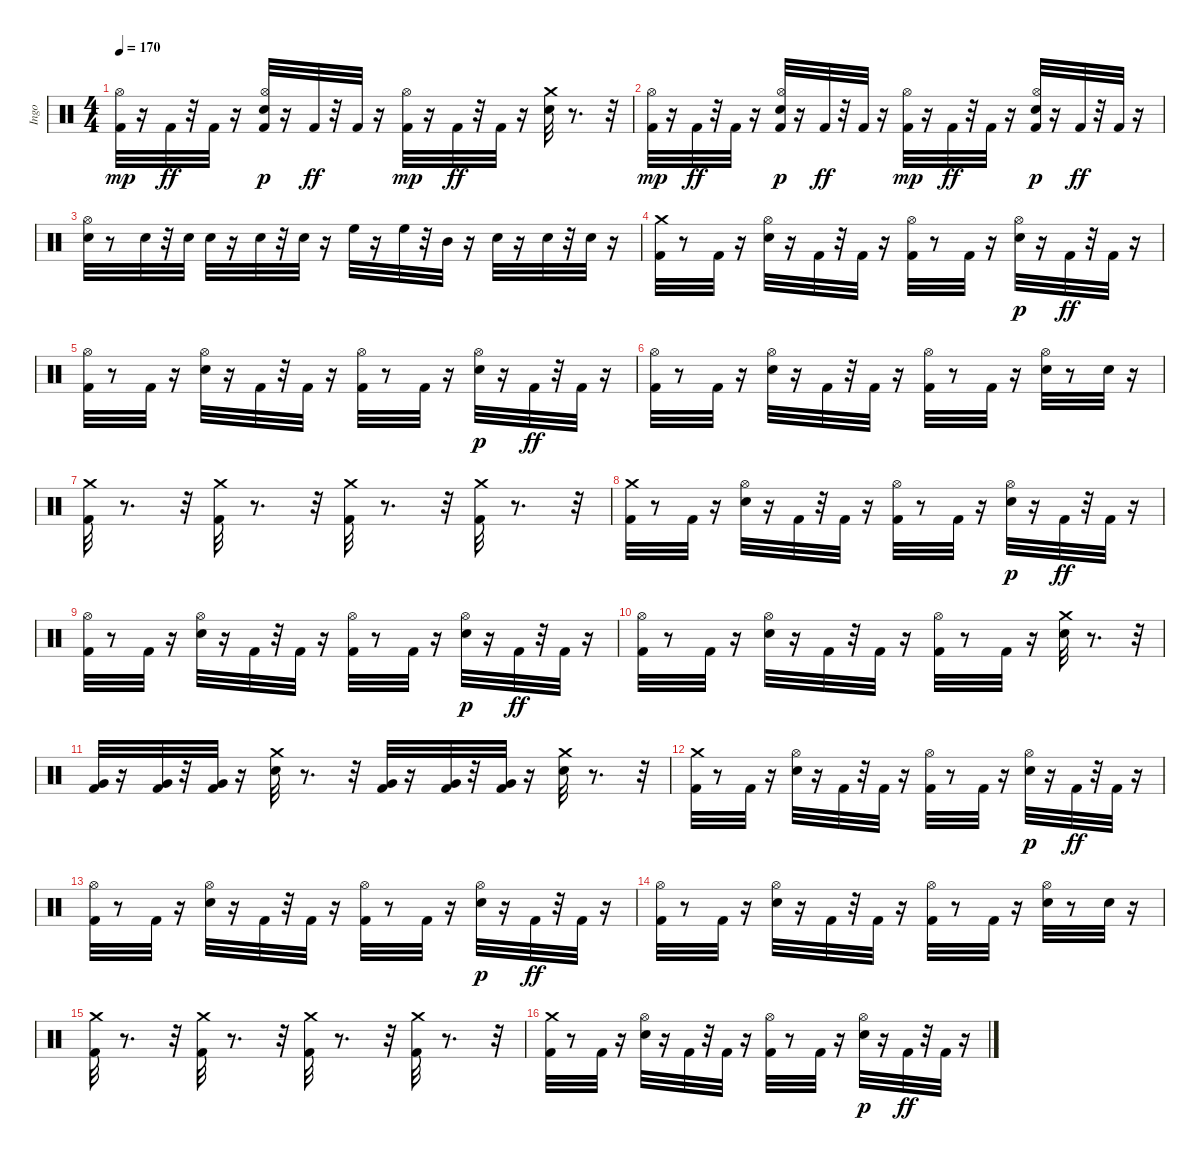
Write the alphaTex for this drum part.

\track ("Ingo" "Ingo") {instrument percussion}
\staff {score}
\articulation defaults
\ts (4 4)
\tempo 170
\clef neutral
\ks c
("Kick (hit) 2" "Hi-Hat (open)").32{dy mp} r.16 "Kick (hit) 2".32{dy ff} r.32 "Kick (hit) 2".32 r.16 ("Snare (hit) 2" "Kick (hit) 2" "Hi-Hat (open)").32{dy p} r.16 "Kick (hit) 2".32{dy ff} r.32 "Kick (hit) 2".32 r.16 ("Kick (hit) 2" "Hi-Hat (open)").32{dy mp} r.16 "Kick (hit) 2".32{dy ff} r.32 "Kick (hit) 2".32 r.16 ("Crash medium (hit)" "Snare (hit) 2").32 r.8{d} r.32 |
("Kick (hit) 2" "Hi-Hat (open)").32{dy mp} r.16 "Kick (hit) 2".32{dy ff} r.32 "Kick (hit) 2".32 r.16 ("Snare (hit) 2" "Kick (hit) 2" "Hi-Hat (open)").32{dy p} r.16 "Kick (hit) 2".32{dy ff} r.32 "Kick (hit) 2".32 r.16 ("Kick (hit) 2" "Hi-Hat (open)").32{dy mp} r.16 "Kick (hit) 2".32{dy ff} r.32 "Kick (hit) 2".32 r.16 ("Snare (hit) 2" "Kick (hit) 2" "Hi-Hat (open)").32{dy p} r.16 "Kick (hit) 2".32{dy ff} r.32 "Kick (hit) 2".32 r.16 |
("Hi-Hat (open)" "Snare (hit) 2").32 r.8 "Snare (hit) 2".32 r.32 "Snare (hit) 2".32 "Snare (hit) 2".32 r.16 "Snare (hit) 2".32 r.32 "Snare (hit) 2".32 r.16 "High Floor Tom (hit)".32 r.16 "High Floor Tom (hit)".32 r.32 "Mid Tom (hit)".32 r.16 "Snare (hit)".32 r.16 "Snare (hit)".32 r.32 "Snare (hit)".32 r.16 |
("Crash medium (hit)" "Kick (hit) 2").32 r.8 "Kick (hit) 2".32 r.16 ("Hi-Hat (open)" "Snare (hit) 2").32 r.16 "Kick (hit) 2".32 r.32 "Kick (hit) 2".32 r.16 ("Hi-Hat (open)" "Kick (hit) 2").32 r.8 "Kick (hit) 2".32 r.16 ("Snare (hit) 2" "Hi-Hat (open)").32{dy p} r.16 "Kick (hit) 2".32{dy ff} r.32 "Kick (hit) 2".32 r.16 |
("Hi-Hat (open)" "Kick (hit) 2").32 r.8 "Kick (hit) 2".32 r.16 ("Hi-Hat (open)" "Snare (hit) 2").32 r.16 "Kick (hit) 2".32 r.32 "Kick (hit) 2".32 r.16 ("Hi-Hat (open)" "Kick (hit) 2").32 r.8 "Kick (hit) 2".32 r.16 ("Snare (hit) 2" "Hi-Hat (open)").32{dy p} r.16 "Kick (hit) 2".32{dy ff} r.32 "Kick (hit) 2".32 r.16 |
("Hi-Hat (open)" "Kick (hit) 2").32 r.8 "Kick (hit) 2".32 r.16 ("Hi-Hat (open)" "Snare (hit) 2").32 r.16 "Kick (hit) 2".32 r.32 "Kick (hit) 2".32 r.16 ("Hi-Hat (open)" "Kick (hit) 2").32 r.8 "Kick (hit) 2".32 r.16 ("Hi-Hat (open)" "Snare (hit) 2").32 r.8 "Snare (hit) 2".32 r.16 |
("Crash medium (hit)" "Kick (hit) 2").32 r.8{d} r.32 ("Crash medium (hit)" "Kick (hit) 2").32 r.8{d} r.32 ("Crash medium (hit)" "Kick (hit) 2").32 r.8{d} r.32 ("Crash medium (hit)" "Kick (hit) 2").32 r.8{d} r.32 |
("Crash medium (hit)" "Kick (hit) 2").32 r.8 "Kick (hit) 2".32 r.16 ("Hi-Hat (open)" "Snare (hit) 2").32 r.16 "Kick (hit) 2".32 r.32 "Kick (hit) 2".32 r.16 ("Hi-Hat (open)" "Kick (hit) 2").32 r.8 "Kick (hit) 2".32 r.16 ("Snare (hit) 2" "Hi-Hat (open)").32{dy p} r.16 "Kick (hit) 2".32{dy ff} r.32 "Kick (hit) 2".32 r.16 |
("Hi-Hat (open)" "Kick (hit) 2").32 r.8 "Kick (hit) 2".32 r.16 ("Hi-Hat (open)" "Snare (hit) 2").32 r.16 "Kick (hit) 2".32 r.32 "Kick (hit) 2".32 r.16 ("Hi-Hat (open)" "Kick (hit) 2").32 r.8 "Kick (hit) 2".32 r.16 ("Snare (hit) 2" "Hi-Hat (open)").32{dy p} r.16 "Kick (hit) 2".32{dy ff} r.32 "Kick (hit) 2".32 r.16 |
("Hi-Hat (open)" "Kick (hit) 2").32 r.8 "Kick (hit) 2".32 r.16 ("Hi-Hat (open)" "Snare (hit) 2").32 r.16 "Kick (hit) 2".32 r.32 "Kick (hit) 2".32 r.16 ("Hi-Hat (open)" "Kick (hit) 2").32 r.8 "Kick (hit) 2".32 r.16 ("Snare (hit) 2" "Crash medium (hit)").32 r.8{d} r.32 |
("Very Low Tom (hit)" "Kick (hit) 2").32 r.16 ("Very Low Tom (hit)" "Kick (hit) 2").32 r.32 ("Very Low Tom (hit)" "Kick (hit) 2").32 r.16 ("Crash medium (hit)" "Snare (hit) 2").32 r.8{d} r.32 ("Very Low Tom (hit)" "Kick (hit) 2").32 r.16 ("Very Low Tom (hit)" "Kick (hit) 2").32 r.32 ("Very Low Tom (hit)" "Kick (hit) 2").32 r.16 ("Crash medium (hit)" "Snare (hit) 2").32 r.8{d} r.32 |
("Crash medium (hit)" "Kick (hit) 2").32 r.8 "Kick (hit) 2".32 r.16 ("Hi-Hat (open)" "Snare (hit) 2").32 r.16 "Kick (hit) 2".32 r.32 "Kick (hit) 2".32 r.16 ("Hi-Hat (open)" "Kick (hit) 2").32 r.8 "Kick (hit) 2".32 r.16 ("Snare (hit) 2" "Hi-Hat (open)").32{dy p} r.16 "Kick (hit) 2".32{dy ff} r.32 "Kick (hit) 2".32 r.16 |
("Hi-Hat (open)" "Kick (hit) 2").32 r.8 "Kick (hit) 2".32 r.16 ("Hi-Hat (open)" "Snare (hit) 2").32 r.16 "Kick (hit) 2".32 r.32 "Kick (hit) 2".32 r.16 ("Hi-Hat (open)" "Kick (hit) 2").32 r.8 "Kick (hit) 2".32 r.16 ("Snare (hit) 2" "Hi-Hat (open)").32{dy p} r.16 "Kick (hit) 2".32{dy ff} r.32 "Kick (hit) 2".32 r.16 |
("Hi-Hat (open)" "Kick (hit) 2").32 r.8 "Kick (hit) 2".32 r.16 ("Hi-Hat (open)" "Snare (hit) 2").32 r.16 "Kick (hit) 2".32 r.32 "Kick (hit) 2".32 r.16 ("Hi-Hat (open)" "Kick (hit) 2").32 r.8 "Kick (hit) 2".32 r.16 ("Hi-Hat (open)" "Snare (hit) 2").32 r.8 "Snare (hit) 2".32 r.16 |
("Crash medium (hit)" "Kick (hit) 2").32 r.8{d} r.32 ("Crash medium (hit)" "Kick (hit) 2").32 r.8{d} r.32 ("Crash medium (hit)" "Kick (hit) 2").32 r.8{d} r.32 ("Crash medium (hit)" "Kick (hit) 2").32 r.8{d} r.32 |
("Crash medium (hit)" "Kick (hit) 2").32 r.8 "Kick (hit) 2".32 r.16 ("Hi-Hat (open)" "Snare (hit) 2").32 r.16 "Kick (hit) 2".32 r.32 "Kick (hit) 2".32 r.16 ("Hi-Hat (open)" "Kick (hit) 2").32 r.8 "Kick (hit) 2".32 r.16 ("Snare (hit) 2" "Hi-Hat (open)").32{dy p} r.16 "Kick (hit) 2".32{dy ff} r.32 "Kick (hit) 2".32 r.16
